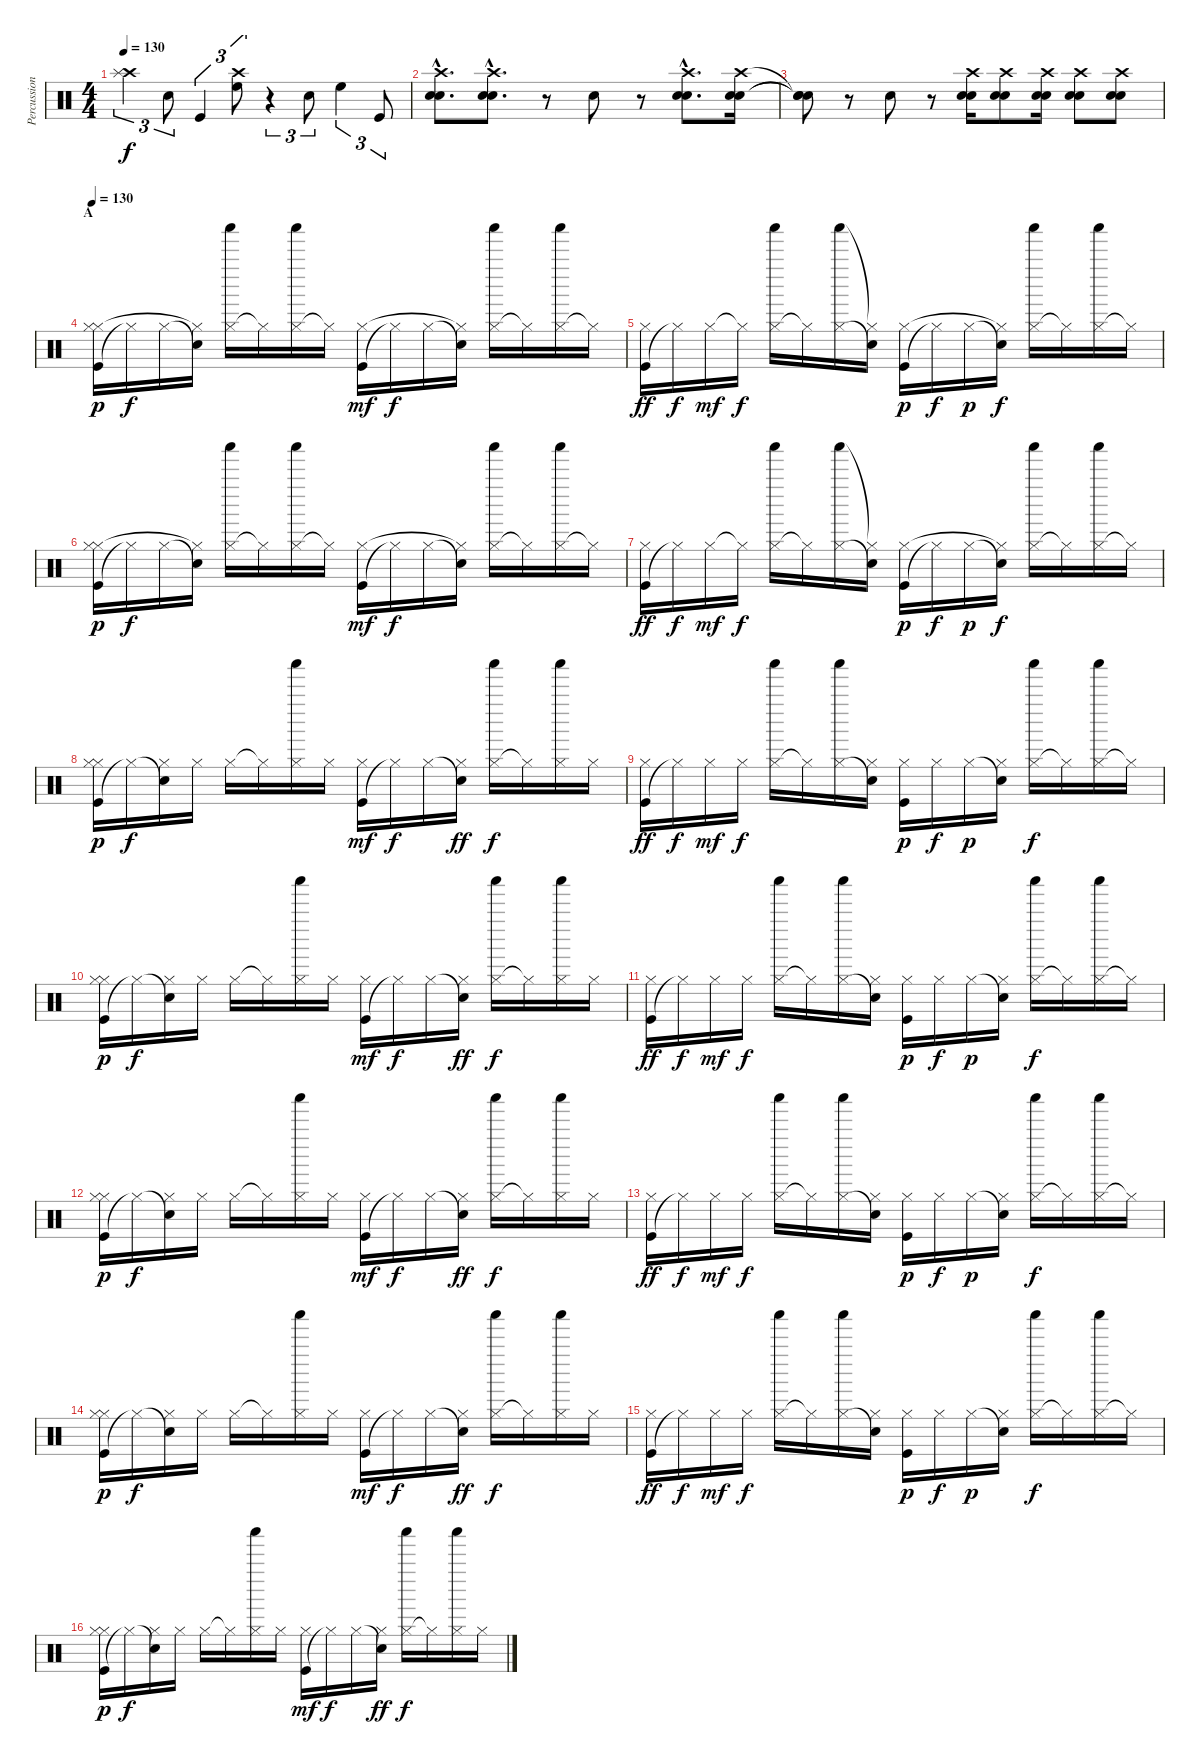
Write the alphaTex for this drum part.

\track ("Percussion" "Percussion") {instrument percussion}
\staff {score}
\articulation defaults
\ts (4 4)
\tempo 130
\clef neutral
\ks c
("Crash high (hit)" "Splash (hit)").4{tu (3 2) dy f} "Snare (hit) 2".8{tu (3 2)} "Kick (hit)".4{tu (3 2)} ("Crash high (hit)" "High Floor Tom (hit)").8{tu (3 2)} r.4{tu (3 2)} "Snare (hit) 2".8{tu (3 2)} "High Floor Tom (hit)".4{tu (3 2)} "Kick (hit)".8{tu (3 2)} |
("Crash high (hit)"{hac} "Snare (hit) 2"{hac} "Electric Snare (hit)"{hac}).8{d} ("Crash high (hit)"{hac} "Snare (hit) 2"{hac} "Electric Snare (hit)"{hac}).8{d} r.8 "Metronome (bell)".8 r.8 ("Crash high (hit)"{hac} "Snare (hit) 2"{hac} "Electric Snare (hit)"{hac}).8{d} ("Crash high (hit)" "Snare (hit) 2" "Electric Snare (hit)").16 |
("Snare (hit)"{t} "Snare (hit)"{t} "Snare (hit)"{t}).8 r.8 "Metronome (bell)".8 r.8 ("Crash high (hit)" "Snare (hit) 2" "Electric Snare (hit)").16 ("Crash high (hit)" "Snare (hit) 2" "Electric Snare (hit)").8 ("Crash high (hit)" "Snare (hit) 2" "Electric Snare (hit)").16 ("Crash high (hit)" "Snare (hit) 2" "Electric Snare (hit)").8 ("Crash high (hit)" "Snare (hit) 2" "Electric Snare (hit)").8 |
\section ("" "A")
\tempo 130
("Kick (hit)" "Hi-Hat (closed)" "Hi-Hat (closed)").16{dy p} "Hi-Hat (closed)"{t}.16{dy f} "Hi-Hat (closed)".16 ("Snare (hit)"{t} "Hi-Hat (closed)"{t}).16 ("Hi-Hat (closed)" "Shaker (hit)").16 "Hi-Hat (closed)"{t}.16 ("Hi-Hat (closed)" "Shaker (hit)").16 "Hi-Hat (closed)"{t}.16 ("Kick (hit)" "Hi-Hat (closed)").16{dy mf} "Hi-Hat (closed)"{t}.16{dy f} "Hi-Hat (closed)".16 ("Snare (hit)"{t} "Hi-Hat (closed)"{t}).16 ("Hi-Hat (closed)" "Shaker (hit)").16 "Hi-Hat (closed)"{t}.16 ("Hi-Hat (closed)" "Shaker (hit)").16 "Hi-Hat (closed)"{t}.16 |
("Kick (hit)" "Hi-Hat (closed)").16{dy ff} "Hi-Hat (closed)"{t}.16{dy f} "Hi-Hat (closed)".16{dy mf} "Hi-Hat (closed)"{t}.16{dy f} ("Hi-Hat (closed)" "Shaker (hit)").16 "Hi-Hat (closed)"{t}.16 ("Hi-Hat (closed)" "Shaker (hit)").16 ("Snare (hit)"{t} "Hi-Hat (closed)"{t}).16 ("Kick (hit)" "Hi-Hat (closed)").16{dy p} "Hi-Hat (closed)"{t}.16{dy f} "Hi-Hat (closed)".16{dy p} ("Snare (hit)"{t} "Hi-Hat (closed)"{t}).16{dy f} ("Hi-Hat (closed)" "Shaker (hit)").16 "Hi-Hat (closed)"{t}.16 ("Hi-Hat (closed)" "Shaker (hit)").16 "Hi-Hat (closed)"{t}.16 |
("Kick (hit)" "Hi-Hat (closed)" "Hi-Hat (closed)").16{dy p} "Hi-Hat (closed)"{t}.16{dy f} "Hi-Hat (closed)".16 ("Snare (hit)"{t} "Hi-Hat (closed)"{t}).16 ("Hi-Hat (closed)" "Shaker (hit)").16 "Hi-Hat (closed)"{t}.16 ("Hi-Hat (closed)" "Shaker (hit)").16 "Hi-Hat (closed)"{t}.16 ("Kick (hit)" "Hi-Hat (closed)").16{dy mf} "Hi-Hat (closed)"{t}.16{dy f} "Hi-Hat (closed)".16 ("Snare (hit)"{t} "Hi-Hat (closed)"{t}).16 ("Hi-Hat (closed)" "Shaker (hit)").16 "Hi-Hat (closed)"{t}.16 ("Hi-Hat (closed)" "Shaker (hit)").16 "Hi-Hat (closed)"{t}.16 |
("Kick (hit)" "Hi-Hat (closed)").16{dy ff} "Hi-Hat (closed)"{t}.16{dy f} "Hi-Hat (closed)".16{dy mf} "Hi-Hat (closed)"{t}.16{dy f} ("Hi-Hat (closed)" "Shaker (hit)").16 "Hi-Hat (closed)"{t}.16 ("Hi-Hat (closed)" "Shaker (hit)").16 ("Snare (hit)"{t} "Hi-Hat (closed)"{t}).16 ("Kick (hit)" "Hi-Hat (closed)").16{dy p} "Hi-Hat (closed)"{t}.16{dy f} "Hi-Hat (closed)".16{dy p} ("Snare (hit)"{t} "Hi-Hat (closed)"{t}).16{dy f} ("Hi-Hat (closed)" "Shaker (hit)").16 "Hi-Hat (closed)"{t}.16 ("Hi-Hat (closed)" "Shaker (hit)").16 "Hi-Hat (closed)"{t}.16 |
("Kick (hit)" "Hi-Hat (closed)" "Hi-Hat (closed)").16{dy p} "Hi-Hat (closed)"{t}.16{dy f} ("Snare (hit)"{t} "Hi-Hat (closed)").16 "Hi-Hat (closed)".16 "Hi-Hat (closed)".16 "Hi-Hat (closed)"{t}.16 ("Hi-Hat (closed)" "Shaker (hit)").16 "Hi-Hat (closed)".16 ("Kick (hit)" "Hi-Hat (closed)").16{dy mf} "Hi-Hat (closed)"{t}.16{dy f} "Hi-Hat (closed)".16 ("Snare (hit)"{t} "Hi-Hat (closed)").16{dy ff} ("Hi-Hat (closed)" "Shaker (hit)").16{dy f} "Hi-Hat (closed)"{t}.16 ("Hi-Hat (closed)" "Shaker (hit)").16 "Hi-Hat (closed)".16 |
("Kick (hit)" "Hi-Hat (closed)").16{dy ff} "Hi-Hat (closed)"{t}.16{dy f} "Hi-Hat (closed)".16{dy mf} "Hi-Hat (closed)".16{dy f} ("Hi-Hat (closed)" "Shaker (hit)").16 "Hi-Hat (closed)"{t}.16 ("Hi-Hat (closed)" "Shaker (hit)").16 ("Snare (hit)"{t} "Hi-Hat (closed)").16 ("Kick (hit)" "Hi-Hat (closed)").16{dy p} "Hi-Hat (closed)".16{dy f} "Hi-Hat (closed)".16{dy p} ("Snare (hit)"{t} "Hi-Hat (closed)").16 ("Hi-Hat (closed)" "Shaker (hit)").16{dy f} "Hi-Hat (closed)"{t}.16 ("Hi-Hat (closed)" "Shaker (hit)").16 "Hi-Hat (closed)"{t}.16 |
("Kick (hit)" "Hi-Hat (closed)" "Hi-Hat (closed)").16{dy p} "Hi-Hat (closed)"{t}.16{dy f} ("Snare (hit)"{t} "Hi-Hat (closed)").16 "Hi-Hat (closed)".16 "Hi-Hat (closed)".16 "Hi-Hat (closed)"{t}.16 ("Hi-Hat (closed)" "Shaker (hit)").16 "Hi-Hat (closed)".16 ("Kick (hit)" "Hi-Hat (closed)").16{dy mf} "Hi-Hat (closed)"{t}.16{dy f} "Hi-Hat (closed)".16 ("Snare (hit)"{t} "Hi-Hat (closed)").16{dy ff} ("Hi-Hat (closed)" "Shaker (hit)").16{dy f} "Hi-Hat (closed)"{t}.16 ("Hi-Hat (closed)" "Shaker (hit)").16 "Hi-Hat (closed)".16 |
("Kick (hit)" "Hi-Hat (closed)").16{dy ff} "Hi-Hat (closed)"{t}.16{dy f} "Hi-Hat (closed)".16{dy mf} "Hi-Hat (closed)".16{dy f} ("Hi-Hat (closed)" "Shaker (hit)").16 "Hi-Hat (closed)"{t}.16 ("Hi-Hat (closed)" "Shaker (hit)").16 ("Snare (hit)"{t} "Hi-Hat (closed)").16 ("Kick (hit)" "Hi-Hat (closed)").16{dy p} "Hi-Hat (closed)".16{dy f} "Hi-Hat (closed)".16{dy p} ("Snare (hit)"{t} "Hi-Hat (closed)").16 ("Hi-Hat (closed)" "Shaker (hit)").16{dy f} "Hi-Hat (closed)"{t}.16 ("Hi-Hat (closed)" "Shaker (hit)").16 "Hi-Hat (closed)"{t}.16 |
("Kick (hit)" "Hi-Hat (closed)" "Hi-Hat (closed)").16{dy p} "Hi-Hat (closed)"{t}.16{dy f} ("Snare (hit)"{t} "Hi-Hat (closed)").16 "Hi-Hat (closed)".16 "Hi-Hat (closed)".16 "Hi-Hat (closed)"{t}.16 ("Hi-Hat (closed)" "Shaker (hit)").16 "Hi-Hat (closed)".16 ("Kick (hit)" "Hi-Hat (closed)").16{dy mf} "Hi-Hat (closed)"{t}.16{dy f} "Hi-Hat (closed)".16 ("Snare (hit)"{t} "Hi-Hat (closed)").16{dy ff} ("Hi-Hat (closed)" "Shaker (hit)").16{dy f} "Hi-Hat (closed)"{t}.16 ("Hi-Hat (closed)" "Shaker (hit)").16 "Hi-Hat (closed)".16 |
("Kick (hit)" "Hi-Hat (closed)").16{dy ff} "Hi-Hat (closed)"{t}.16{dy f} "Hi-Hat (closed)".16{dy mf} "Hi-Hat (closed)".16{dy f} ("Hi-Hat (closed)" "Shaker (hit)").16 "Hi-Hat (closed)"{t}.16 ("Hi-Hat (closed)" "Shaker (hit)").16 ("Snare (hit)"{t} "Hi-Hat (closed)").16 ("Kick (hit)" "Hi-Hat (closed)").16{dy p} "Hi-Hat (closed)".16{dy f} "Hi-Hat (closed)".16{dy p} ("Snare (hit)"{t} "Hi-Hat (closed)").16 ("Hi-Hat (closed)" "Shaker (hit)").16{dy f} "Hi-Hat (closed)"{t}.16 ("Hi-Hat (closed)" "Shaker (hit)").16 "Hi-Hat (closed)"{t}.16 |
("Kick (hit)" "Hi-Hat (closed)" "Hi-Hat (closed)").16{dy p} "Hi-Hat (closed)"{t}.16{dy f} ("Snare (hit)"{t} "Hi-Hat (closed)").16 "Hi-Hat (closed)".16 "Hi-Hat (closed)".16 "Hi-Hat (closed)"{t}.16 ("Hi-Hat (closed)" "Shaker (hit)").16 "Hi-Hat (closed)".16 ("Kick (hit)" "Hi-Hat (closed)").16{dy mf} "Hi-Hat (closed)"{t}.16{dy f} "Hi-Hat (closed)".16 ("Snare (hit)"{t} "Hi-Hat (closed)").16{dy ff} ("Hi-Hat (closed)" "Shaker (hit)").16{dy f} "Hi-Hat (closed)"{t}.16 ("Hi-Hat (closed)" "Shaker (hit)").16 "Hi-Hat (closed)".16 |
("Kick (hit)" "Hi-Hat (closed)").16{dy ff} "Hi-Hat (closed)"{t}.16{dy f} "Hi-Hat (closed)".16{dy mf} "Hi-Hat (closed)".16{dy f} ("Hi-Hat (closed)" "Shaker (hit)").16 "Hi-Hat (closed)"{t}.16 ("Hi-Hat (closed)" "Shaker (hit)").16 ("Snare (hit)"{t} "Hi-Hat (closed)").16 ("Kick (hit)" "Hi-Hat (closed)").16{dy p} "Hi-Hat (closed)".16{dy f} "Hi-Hat (closed)".16{dy p} ("Snare (hit)"{t} "Hi-Hat (closed)").16 ("Hi-Hat (closed)" "Shaker (hit)").16{dy f} "Hi-Hat (closed)"{t}.16 ("Hi-Hat (closed)" "Shaker (hit)").16 "Hi-Hat (closed)"{t}.16 |
("Kick (hit)" "Hi-Hat (closed)" "Hi-Hat (closed)").16{dy p} "Hi-Hat (closed)"{t}.16{dy f} ("Snare (hit)"{t} "Hi-Hat (closed)").16 "Hi-Hat (closed)".16 "Hi-Hat (closed)".16 "Hi-Hat (closed)"{t}.16 ("Hi-Hat (closed)" "Shaker (hit)").16 "Hi-Hat (closed)".16 ("Kick (hit)" "Hi-Hat (closed)").16{dy mf} "Hi-Hat (closed)"{t}.16{dy f} "Hi-Hat (closed)".16 ("Snare (hit)"{t} "Hi-Hat (closed)").16{dy ff} ("Hi-Hat (closed)" "Shaker (hit)").16{dy f} "Hi-Hat (closed)"{t}.16 ("Hi-Hat (closed)" "Shaker (hit)").16 "Hi-Hat (closed)".16
